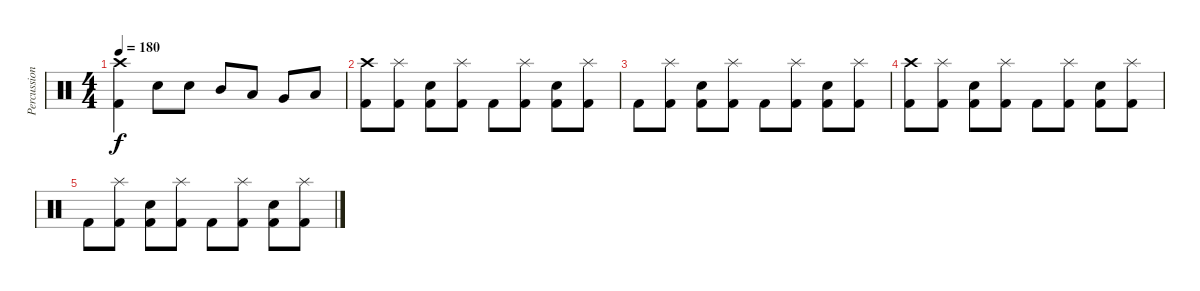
\track ("Percussion" "Percussion") {mute instrument percussion}
\staff {score}
\articulation defaults
\ts (4 4)
\tempo 180
\clef neutral
\ks c
("Crash high (hit)" "Kick (hit) 2").4{dy f} "Electric Snare (hit)".8 "Electric Snare (hit)".8 "Mid Tom (hit)".8 "Low Tom (hit)".8 "Very Low Tom (hit)".8 "Low Floor Tom (hit)".8 |
("Crash high (hit)" "Kick (hit) 2").8 ("Splash (hit)" "Kick (hit) 2").8 ("Electric Snare (hit)" "Kick (hit) 2").8 ("Splash (hit)" "Kick (hit) 2").8 "Kick (hit) 2".8 ("Splash (hit)" "Kick (hit) 2").8 ("Electric Snare (hit)" "Kick (hit) 2").8 ("Splash (hit)" "Kick (hit) 2").8 |
"Kick (hit) 2".8 ("Splash (hit)" "Kick (hit) 2").8 ("Electric Snare (hit)" "Kick (hit) 2").8 ("Splash (hit)" "Kick (hit) 2").8 "Kick (hit) 2".8 ("Splash (hit)" "Kick (hit) 2").8 ("Electric Snare (hit)" "Kick (hit) 2").8 ("Splash (hit)" "Kick (hit) 2").8 |
("Crash high (hit)" "Kick (hit) 2").8 ("Splash (hit)" "Kick (hit) 2").8 ("Electric Snare (hit)" "Kick (hit) 2").8 ("Splash (hit)" "Kick (hit) 2").8 "Kick (hit) 2".8 ("Splash (hit)" "Kick (hit) 2").8 ("Electric Snare (hit)" "Kick (hit) 2").8 ("Splash (hit)" "Kick (hit) 2").8 |
"Kick (hit) 2".8 ("Splash (hit)" "Kick (hit) 2").8 ("Electric Snare (hit)" "Kick (hit) 2").8 ("Splash (hit)" "Kick (hit) 2").8 "Kick (hit) 2".8 ("Splash (hit)" "Kick (hit) 2").8 ("Electric Snare (hit)" "Kick (hit) 2").8 ("Splash (hit)" "Kick (hit) 2").8
